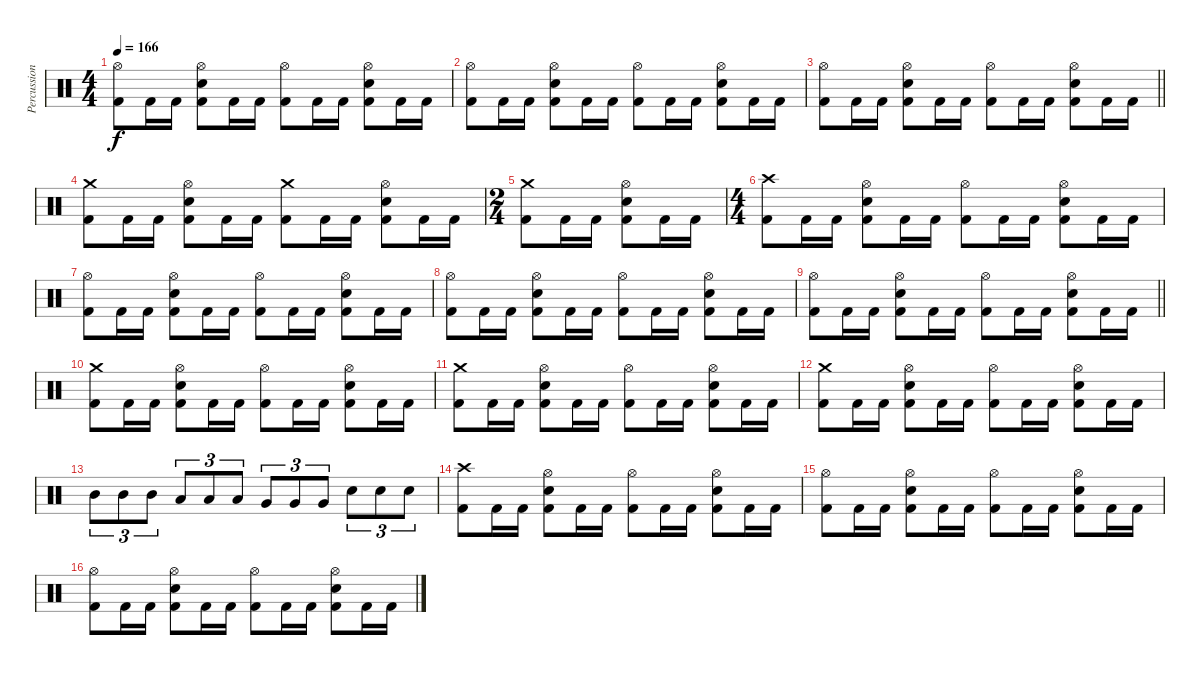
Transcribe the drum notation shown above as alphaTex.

\track ("Percussion" "Percussion") {instrument percussion}
\staff {score}
\articulation defaults
\ts (4 4)
\tempo 166
\clef neutral
\ks c
("Hi-Hat (open)" "Kick (hit) 2").8{dy f} "Kick (hit) 2".16 "Kick (hit) 2".16 ("Hi-Hat (open)" "Snare (hit) 2" "Kick (hit) 2").8 "Kick (hit) 2".16 "Kick (hit) 2".16 ("Hi-Hat (open)" "Kick (hit) 2").8 "Kick (hit) 2".16 "Kick (hit) 2".16 ("Hi-Hat (open)" "Snare (hit) 2" "Kick (hit) 2").8 "Kick (hit) 2".16 "Kick (hit) 2".16 |
("Hi-Hat (open)" "Kick (hit) 2").8 "Kick (hit) 2".16 "Kick (hit) 2".16 ("Hi-Hat (open)" "Snare (hit) 2" "Kick (hit) 2").8 "Kick (hit) 2".16 "Kick (hit) 2".16 ("Hi-Hat (open)" "Kick (hit) 2").8 "Kick (hit) 2".16 "Kick (hit) 2".16 ("Hi-Hat (open)" "Snare (hit) 2" "Kick (hit) 2").8 "Kick (hit) 2".16 "Kick (hit) 2".16 |
\barLineRight lightlight
("Hi-Hat (open)" "Kick (hit) 2").8 "Kick (hit) 2".16 "Kick (hit) 2".16 ("Hi-Hat (open)" "Snare (hit) 2" "Kick (hit) 2").8 "Kick (hit) 2".16 "Kick (hit) 2".16 ("Hi-Hat (open)" "Kick (hit) 2").8 "Kick (hit) 2".16 "Kick (hit) 2".16 ("Hi-Hat (open)" "Snare (hit) 2" "Kick (hit) 2").8 "Kick (hit) 2".16 "Kick (hit) 2".16 |
("Crash medium (hit)" "Kick (hit) 2").8 "Kick (hit) 2".16 "Kick (hit) 2".16 ("Hi-Hat (open)" "Snare (hit) 2" "Kick (hit) 2").8 "Kick (hit) 2".16 "Kick (hit) 2".16 ("Crash medium (hit)" "Kick (hit) 2").8 "Kick (hit) 2".16 "Kick (hit) 2".16 ("Hi-Hat (open)" "Snare (hit) 2" "Kick (hit) 2").8 "Kick (hit) 2".16 "Kick (hit) 2".16 |
\ts (2 4)
("Crash medium (hit)" "Kick (hit) 2").8 "Kick (hit) 2".16 "Kick (hit) 2".16 ("Hi-Hat (open)" "Snare (hit) 2" "Kick (hit) 2").8 "Kick (hit) 2".16 "Kick (hit) 2".16 |
\ts (4 4)
("Crash high (hit)" "Kick (hit) 2").8 "Kick (hit) 2".16 "Kick (hit) 2".16 ("Hi-Hat (open)" "Snare (hit) 2" "Kick (hit) 2").8 "Kick (hit) 2".16 "Kick (hit) 2".16 ("Hi-Hat (open)" "Kick (hit) 2").8 "Kick (hit) 2".16 "Kick (hit) 2".16 ("Hi-Hat (open)" "Snare (hit) 2" "Kick (hit) 2").8 "Kick (hit) 2".16 "Kick (hit) 2".16 |
("Hi-Hat (open)" "Kick (hit) 2").8 "Kick (hit) 2".16 "Kick (hit) 2".16 ("Hi-Hat (open)" "Snare (hit) 2" "Kick (hit) 2").8 "Kick (hit) 2".16 "Kick (hit) 2".16 ("Hi-Hat (open)" "Kick (hit) 2").8 "Kick (hit) 2".16 "Kick (hit) 2".16 ("Hi-Hat (open)" "Snare (hit) 2" "Kick (hit) 2").8 "Kick (hit) 2".16 "Kick (hit) 2".16 |
("Hi-Hat (open)" "Kick (hit) 2").8 "Kick (hit) 2".16 "Kick (hit) 2".16 ("Hi-Hat (open)" "Snare (hit) 2" "Kick (hit) 2").8 "Kick (hit) 2".16 "Kick (hit) 2".16 ("Hi-Hat (open)" "Kick (hit) 2").8 "Kick (hit) 2".16 "Kick (hit) 2".16 ("Hi-Hat (open)" "Snare (hit) 2" "Kick (hit) 2").8 "Kick (hit) 2".16 "Kick (hit) 2".16 |
\barLineRight lightlight
("Hi-Hat (open)" "Kick (hit) 2").8 "Kick (hit) 2".16 "Kick (hit) 2".16 ("Hi-Hat (open)" "Snare (hit) 2" "Kick (hit) 2").8 "Kick (hit) 2".16 "Kick (hit) 2".16 ("Hi-Hat (open)" "Kick (hit) 2").8 "Kick (hit) 2".16 "Kick (hit) 2".16 ("Hi-Hat (open)" "Snare (hit) 2" "Kick (hit) 2").8 "Kick (hit) 2".16 "Kick (hit) 2".16 |
("Crash medium (hit)" "Kick (hit) 2").8 "Kick (hit) 2".16 "Kick (hit) 2".16 ("Hi-Hat (open)" "Snare (hit) 2" "Kick (hit) 2").8 "Kick (hit) 2".16 "Kick (hit) 2".16 ("Hi-Hat (open)" "Kick (hit) 2").8 "Kick (hit) 2".16 "Kick (hit) 2".16 ("Hi-Hat (open)" "Snare (hit) 2" "Kick (hit) 2").8 "Kick (hit) 2".16 "Kick (hit) 2".16 |
("Crash medium (hit)" "Kick (hit) 2").8 "Kick (hit) 2".16 "Kick (hit) 2".16 ("Hi-Hat (open)" "Snare (hit) 2" "Kick (hit) 2").8 "Kick (hit) 2".16 "Kick (hit) 2".16 ("Hi-Hat (open)" "Kick (hit) 2").8 "Kick (hit) 2".16 "Kick (hit) 2".16 ("Hi-Hat (open)" "Snare (hit) 2" "Kick (hit) 2").8 "Kick (hit) 2".16 "Kick (hit) 2".16 |
("Crash medium (hit)" "Kick (hit) 2").8 "Kick (hit) 2".16 "Kick (hit) 2".16 ("Hi-Hat (open)" "Snare (hit) 2" "Kick (hit) 2").8 "Kick (hit) 2".16 "Kick (hit) 2".16 ("Hi-Hat (open)" "Kick (hit) 2").8 "Kick (hit) 2".16 "Kick (hit) 2".16 ("Hi-Hat (open)" "Snare (hit) 2" "Kick (hit) 2").8 "Kick (hit) 2".16 "Kick (hit) 2".16 |
"Mid Tom (hit)".8{tu (3 2)} "Mid Tom (hit)".8{tu (3 2)} "Mid Tom (hit)".8{tu (3 2)} "Low Tom (hit)".8{tu (3 2)} "Low Tom (hit)".8{tu (3 2)} "Low Tom (hit)".8{tu (3 2)} "Very Low Tom (hit)".8{tu (3 2)} "Very Low Tom (hit)".8{tu (3 2)} "Very Low Tom (hit)".8{tu (3 2)} "Snare (hit) 2".8{tu (3 2)} "Snare (hit) 2".8{tu (3 2)} "Snare (hit) 2".8{tu (3 2)} |
("Crash high (hit)" "Kick (hit) 2").8 "Kick (hit) 2".16 "Kick (hit) 2".16 ("Hi-Hat (open)" "Snare (hit) 2" "Kick (hit) 2").8 "Kick (hit) 2".16 "Kick (hit) 2".16 ("Hi-Hat (open)" "Kick (hit) 2").8 "Kick (hit) 2".16 "Kick (hit) 2".16 ("Hi-Hat (open)" "Snare (hit) 2" "Kick (hit) 2").8 "Kick (hit) 2".16 "Kick (hit) 2".16 |
("Hi-Hat (open)" "Kick (hit) 2").8 "Kick (hit) 2".16 "Kick (hit) 2".16 ("Hi-Hat (open)" "Snare (hit) 2" "Kick (hit) 2").8 "Kick (hit) 2".16 "Kick (hit) 2".16 ("Hi-Hat (open)" "Kick (hit) 2").8 "Kick (hit) 2".16 "Kick (hit) 2".16 ("Hi-Hat (open)" "Snare (hit) 2" "Kick (hit) 2").8 "Kick (hit) 2".16 "Kick (hit) 2".16 |
("Hi-Hat (open)" "Kick (hit) 2").8 "Kick (hit) 2".16 "Kick (hit) 2".16 ("Hi-Hat (open)" "Snare (hit) 2" "Kick (hit) 2").8 "Kick (hit) 2".16 "Kick (hit) 2".16 ("Hi-Hat (open)" "Kick (hit) 2").8 "Kick (hit) 2".16 "Kick (hit) 2".16 ("Hi-Hat (open)" "Snare (hit) 2" "Kick (hit) 2").8 "Kick (hit) 2".16 "Kick (hit) 2".16
